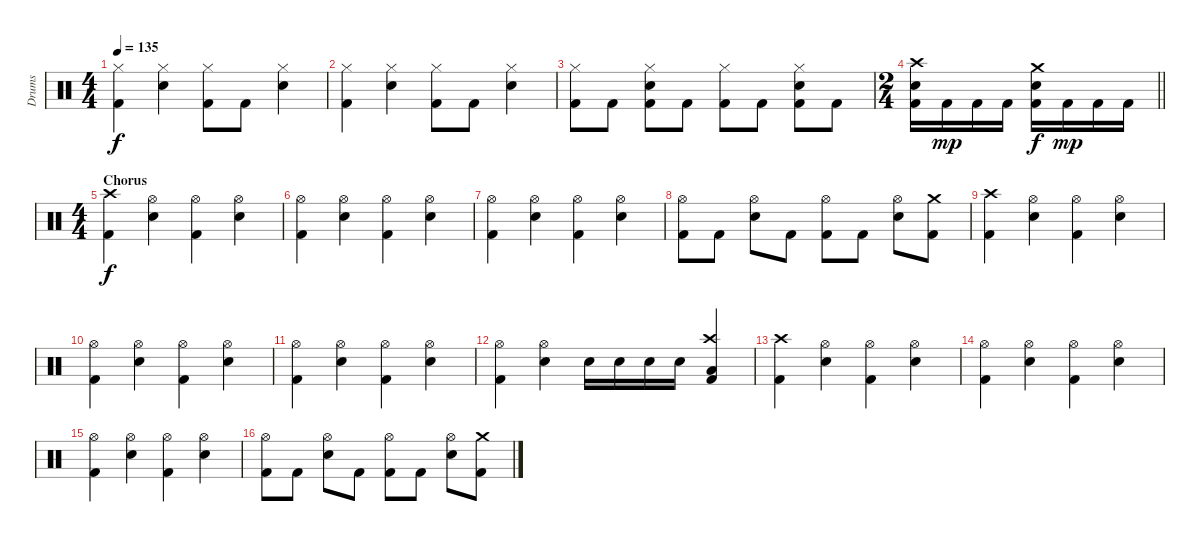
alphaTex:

\track ("Drums" "Drums") {instrument percussion}
\staff {score}
\articulation defaults
\ts (4 4)
\tempo 135
\clef neutral
\ks c
("Hi-Hat (closed)" "Kick (hit) 2").4{dy f} ("Hi-Hat (closed)" "Snare (hit) 2").4 ("Hi-Hat (closed)" "Kick (hit) 2").8 "Kick (hit) 2".8 ("Hi-Hat (closed)" "Snare (hit) 2").4 |
("Hi-Hat (closed)" "Kick (hit) 2").4 ("Hi-Hat (closed)" "Snare (hit) 2").4 ("Hi-Hat (closed)" "Kick (hit) 2").8 "Kick (hit) 2".8 ("Hi-Hat (closed)" "Snare (hit) 2").4 |
("Hi-Hat (closed)" "Kick (hit) 2").8 "Kick (hit) 2".8 ("Hi-Hat (closed)" "Snare (hit) 2" "Kick (hit) 2").8 "Kick (hit) 2".8 ("Hi-Hat (closed)" "Kick (hit) 2").8 "Kick (hit) 2".8 ("Hi-Hat (closed)" "Snare (hit) 2" "Kick (hit) 2").8 "Kick (hit) 2".8 |
\ts (2 4)
\barLineRight lightlight
("Crash high (hit)" "Snare (hit) 2" "Kick (hit) 2").16 "Kick (hit) 2".16{dy mp} "Kick (hit) 2".16 "Kick (hit) 2".16 ("Crash medium (hit)" "Snare (hit) 2" "Kick (hit) 2").16{dy f} "Kick (hit) 2".16{dy mp} "Kick (hit) 2".16 "Kick (hit) 2".16 |
\ts (4 4)
\section ("" "Chorus")
("Crash high (hit)" "Kick (hit) 2").4{dy f} ("Hi-Hat (open)" "Snare (hit) 2").4 ("Hi-Hat (open)" "Kick (hit) 2").4 ("Hi-Hat (open)" "Snare (hit) 2").4 |
("Hi-Hat (open)" "Kick (hit) 2").4 ("Hi-Hat (open)" "Snare (hit) 2").4 ("Hi-Hat (open)" "Kick (hit) 2").4 ("Hi-Hat (open)" "Snare (hit) 2").4 |
("Hi-Hat (open)" "Kick (hit) 2").4 ("Hi-Hat (open)" "Snare (hit) 2").4 ("Hi-Hat (open)" "Kick (hit) 2").4 ("Hi-Hat (open)" "Snare (hit) 2").4 |
("Hi-Hat (open)" "Kick (hit) 2").8 "Kick (hit) 2".8 ("Hi-Hat (open)" "Snare (hit) 2").8 "Kick (hit) 2".8 ("Hi-Hat (open)" "Kick (hit) 2").8 "Kick (hit) 2".8 ("Hi-Hat (open)" "Snare (hit) 2").8 ("Crash medium (hit)" "Kick (hit) 2").8 |
("Crash high (hit)" "Kick (hit) 2").4 ("Hi-Hat (open)" "Snare (hit) 2").4 ("Hi-Hat (open)" "Kick (hit) 2").4 ("Hi-Hat (open)" "Snare (hit) 2").4 |
("Hi-Hat (open)" "Kick (hit) 2").4 ("Hi-Hat (open)" "Snare (hit) 2").4 ("Hi-Hat (open)" "Kick (hit) 2").4 ("Hi-Hat (open)" "Snare (hit) 2").4 |
("Hi-Hat (open)" "Kick (hit) 2").4 ("Hi-Hat (open)" "Snare (hit) 2").4 ("Hi-Hat (open)" "Kick (hit) 2").4 ("Hi-Hat (open)" "Snare (hit) 2").4 |
("Hi-Hat (open)" "Kick (hit) 2").4 ("Hi-Hat (open)" "Snare (hit) 2").4 "Snare (hit) 2".16 "Snare (hit) 2".16 "Snare (hit) 2".16 "Snare (hit) 2".16 ("Crash high (hit)" "Low Tom (hit)" "Kick (hit) 2").4 |
("Crash high (hit)" "Kick (hit) 2").4 ("Hi-Hat (open)" "Snare (hit) 2").4 ("Hi-Hat (open)" "Kick (hit) 2").4 ("Hi-Hat (open)" "Snare (hit) 2").4 |
("Hi-Hat (open)" "Kick (hit) 2").4 ("Hi-Hat (open)" "Snare (hit) 2").4 ("Hi-Hat (open)" "Kick (hit) 2").4 ("Hi-Hat (open)" "Snare (hit) 2").4 |
("Hi-Hat (open)" "Kick (hit) 2").4 ("Hi-Hat (open)" "Snare (hit) 2").4 ("Hi-Hat (open)" "Kick (hit) 2").4 ("Hi-Hat (open)" "Snare (hit) 2").4 |
("Hi-Hat (open)" "Kick (hit) 2").8 "Kick (hit) 2".8 ("Hi-Hat (open)" "Snare (hit) 2").8 "Kick (hit) 2".8 ("Hi-Hat (open)" "Kick (hit) 2").8 "Kick (hit) 2".8 ("Hi-Hat (open)" "Snare (hit) 2").8 ("Crash medium (hit)" "Kick (hit) 2").8
